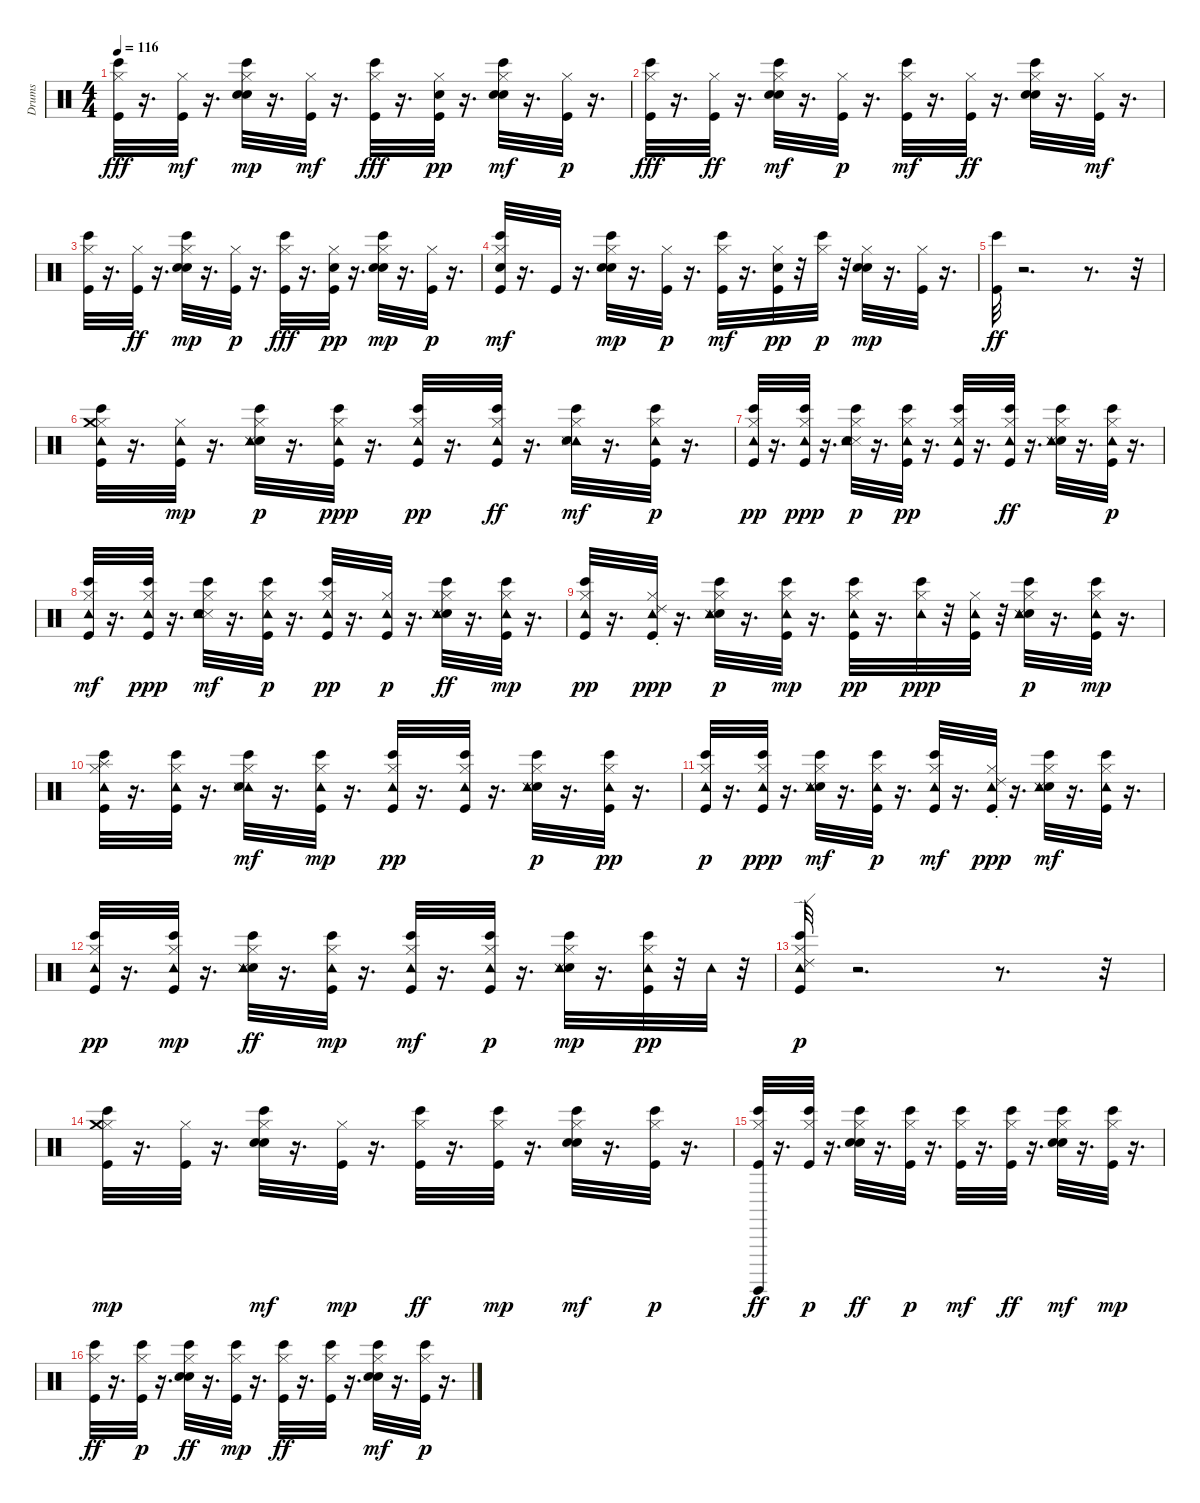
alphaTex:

\track ("Drums" "Drums") {instrument percussion}
\staff {score}
\articulation defaults
\ts (4 4)
\tempo 116
\clef neutral
\ks c
("Kick (hit)" "Hi-Hat (closed)" "Bongo High (hit)").32{dy fff} r.16{d} ("Hi-Hat (closed)" "Kick (hit)").32{dy mf} r.16{d} ("Snare (hit) 2" "Hi-Hat (closed)" "Bongo High (hit)" "Electric Snare (hit)").32{dy mp} r.16{d} ("Hi-Hat (closed)" "Kick (hit)").32{dy mf} r.16{d} ("Bongo High (hit)" "Hi-Hat (closed)" "Kick (hit)").32{dy fff} r.16{d} ("Kick (hit)" "Hi-Hat (closed)" "Electric Snare (hit)").32{dy pp} r.16{d} ("Bongo High (hit)" "Electric Snare (hit)" "Snare (hit) 2" "Hi-Hat (closed)").32{dy mf} r.16{d} ("Kick (hit)" "Hi-Hat (closed)").32{dy p} r.16{d} |
("Kick (hit)" "Hi-Hat (closed)" "Bongo High (hit)").32{dy fff} r.16{d} ("Hi-Hat (closed)" "Kick (hit)").32{dy ff} r.16{d} ("Bongo High (hit)" "Electric Snare (hit)" "Hi-Hat (closed)" "Snare (hit) 2").32{dy mf} r.16{d} ("Kick (hit)" "Hi-Hat (closed)").32{dy p} r.16{d} ("Kick (hit)" "Hi-Hat (closed)" "Bongo High (hit)").32{dy mf} r.16{d} ("Hi-Hat (closed)" "Kick (hit)").32{dy ff} r.16{d} ("Bongo High (hit)" "Electric Snare (hit)" "Snare (hit) 2" "Hi-Hat (closed)").32 r.16{d} ("Hi-Hat (closed)" "Kick (hit)").32{dy mf} r.16{d} |
("Kick (hit)" "Hi-Hat (closed)" "Bongo High (hit)").32 r.16{d} ("Hi-Hat (closed)" "Kick (hit)").32{dy ff} r.16{d} ("Bongo High (hit)" "Hi-Hat (closed)" "Snare (hit) 2" "Electric Snare (hit)").32{dy mp} r.16{d} ("Kick (hit)" "Hi-Hat (closed)").32{dy p} r.16{d} ("Bongo High (hit)" "Hi-Hat (closed)" "Kick (hit)").32{dy fff} r.16{d} ("Kick (hit)" "Electric Snare (hit)" "Hi-Hat (closed)").32{dy pp} r.16{d} ("Snare (hit) 2" "Hi-Hat (closed)" "Bongo High (hit)" "Electric Snare (hit)").32{dy mp} r.16{d} ("Kick (hit)" "Hi-Hat (closed)").32{dy p} r.16{d} |
("Kick (hit)" "Snare (hit)" "Hi-Hat (closed)" "Bongo High (hit)").32{dy mf} r.16{d} "Kick (hit)".32 r.16{d} ("Snare (hit) 2" "Hi-Hat (closed)" "Bongo High (hit)" "Electric Snare (hit)").32{dy mp} r.16{d} ("Kick (hit)" "Hi-Hat (closed)").32{dy p} r.16{d} ("Kick (hit)" "Hi-Hat (closed)" "Bongo High (hit)").32{dy mf} r.16{d} ("Kick (hit)" "Electric Snare (hit)" "Hi-Hat (closed)").32{dy pp} r.32 ("Hi-Hat (closed)" "Bongo High (hit)").32{dy p} r.32 ("Snare (hit) 2" "Electric Snare (hit)" "Hi-Hat (closed)").32{dy mp} r.16{d} ("Hi-Hat (closed)" "Kick (hit)").32 r.16{d} |
("Bongo High (hit)" "Kick (hit)").32{dy ff} r.2{d} r.8{d} r.32 |
("Tambourine (hit)" "Hi-Hat (closed)" "Crash medium (hit)" "Bongo High (hit)" "Kick (hit)").32 r.16{d} ("Kick (hit)" "Tambourine (hit)" "Hi-Hat (closed)").32{dy mp} r.16{d} ("Snare (hit) 2" "Snare (side stick) 3" "Hi-Hat (closed)" "Tambourine (hit)" "Bongo High (hit)").32{dy p} r.16{d} ("Kick (hit)" "Hi-Hat (closed)" "Bongo High (hit)" "Tambourine (hit)").32{dy ppp} r.16{d} ("Bongo High (hit)" "Hi-Hat (closed)" "Kick (hit)" "Tambourine (hit)").32{dy pp} r.16{d} ("Tambourine (hit)" "Bongo High (hit)" "Hi-Hat (closed)" "Kick (hit)").32{dy ff} r.16{d} ("Tambourine (hit)" "Snare (hit) 2" "Snare (side stick) 3" "Hi-Hat (closed)" "Bongo High (hit)").32{dy mf} r.16{d} ("Bongo High (hit)" "Kick (hit)" "Tambourine (hit)" "Hi-Hat (closed)").32{dy p} r.16{d} |
("Kick (hit)" "Hi-Hat (closed)" "Bongo High (hit)" "Tambourine (hit)").32{dy pp} r.16{d} ("Kick (hit)" "Hi-Hat (closed)" "Bongo High (hit)" "Tambourine (hit)").32{dy ppp} r.16{d} ("Snare (side stick) 3" "Hi-Hat (closed)" "Snare (hit) 2" "Tambourine (hit)" "Bongo High (hit)").32{dy p} r.16{d} ("Hi-Hat (closed)" "Kick (hit)" "Bongo High (hit)" "Tambourine (hit)").32{dy pp} r.16{d} ("Bongo High (hit)" "Hi-Hat (closed)" "Kick (hit)" "Tambourine (hit)").32 r.16{d} ("Tambourine (hit)" "Bongo High (hit)" "Hi-Hat (closed)" "Kick (hit)").32{dy ff} r.16{d} ("Hi-Hat (closed)" "Bongo High (hit)" "Snare (hit) 2" "Tambourine (hit)" "Snare (side stick) 3").32 r.16{d} ("Bongo High (hit)" "Kick (hit)" "Tambourine (hit)" "Hi-Hat (closed)").32{dy p} r.16{d} |
("Bongo High (hit)" "Kick (hit)" "Tambourine (hit)" "Hi-Hat (closed)").32{dy mf} r.16{d} ("Kick (hit)" "Hi-Hat (closed)" "Bongo High (hit)" "Tambourine (hit)").32{dy ppp} r.16{d} ("Bongo High (hit)" "Snare (side stick) 3" "Tambourine (hit)" "Hi-Hat (closed)" "Snare (hit) 2").32{dy mf} r.16{d} ("Tambourine (hit)" "Hi-Hat (closed)" "Bongo High (hit)" "Kick (hit)").32{dy p} r.16{d} ("Bongo High (hit)" "Hi-Hat (closed)" "Kick (hit)" "Tambourine (hit)").32{dy pp} r.16{d} ("Kick (hit)" "Tambourine (hit)" "Hi-Hat (closed)").32{dy p} r.16{d} ("Snare (hit) 2" "Bongo High (hit)" "Tambourine (hit)" "Hi-Hat (closed)" "Snare (side stick) 3").32{dy ff} r.16{d} ("Bongo High (hit)" "Tambourine (hit)" "Hi-Hat (closed)" "Kick (hit)").32{dy mp} r.16{d} |
("Kick (hit)" "Hi-Hat (closed)" "Bongo High (hit)" "Tambourine (hit)").32{dy pp} r.16{d} ("Kick (hit)" "Hi-Hat (closed)" "Ride (choke) 2" "Tambourine (hit)").32{dy ppp} r.16{d} ("Snare (hit) 2" "Snare (side stick) 3" "Hi-Hat (closed)" "Bongo High (hit)" "Tambourine (hit)").32{dy p} r.16{d} ("Tambourine (hit)" "Kick (hit)" "Hi-Hat (closed)" "Bongo High (hit)").32{dy mp} r.16{d} ("Kick (hit)" "Bongo High (hit)" "Hi-Hat (closed)" "Tambourine (hit)").32{dy pp} r.16{d} ("Hi-Hat (closed)" "Bongo High (hit)" "Tambourine (hit)").32{dy ppp} r.32 ("Kick (hit)" "Hi-Hat (closed)" "Tambourine (hit)").32 r.32 ("Bongo High (hit)" "Snare (hit) 2" "Hi-Hat (closed)" "Snare (side stick) 3" "Tambourine (hit)").32{dy p} r.16{d} ("Bongo High (hit)" "Tambourine (hit)" "Hi-Hat (closed)" "Kick (hit)").32{dy mp} r.16{d} |
("Kick (hit)" "Hi-Hat (closed)" "Bongo High (hit)" "Tambourine (hit)" "Splash (hit)").32 r.16{d} ("Tambourine (hit)" "Kick (hit)" "Hi-Hat (closed)" "Bongo High (hit)").32 r.16{d} ("Bongo High (hit)" "Tambourine (hit)" "Snare (side stick) 3" "Snare (hit) 2" "Hi-Hat (closed)").32{dy mf} r.16{d} ("Bongo High (hit)" "Tambourine (hit)" "Hi-Hat (closed)" "Kick (hit)").32{dy mp} r.16{d} ("Kick (hit)" "Hi-Hat (closed)" "Bongo High (hit)" "Tambourine (hit)").32{dy pp} r.16{d} ("Kick (hit)" "Hi-Hat (closed)" "Bongo High (hit)" "Tambourine (hit)").32 r.16{d} ("Snare (hit) 2" "Snare (side stick) 3" "Hi-Hat (closed)" "Bongo High (hit)" "Tambourine (hit)").32{dy p} r.16{d} ("Kick (hit)" "Hi-Hat (closed)" "Bongo High (hit)" "Tambourine (hit)").32{dy pp} r.16{d} |
("Hi-Hat (closed)" "Kick (hit)" "Tambourine (hit)" "Bongo High (hit)").32{dy p} r.16{d} ("Hi-Hat (closed)" "Kick (hit)" "Bongo High (hit)" "Tambourine (hit)").32{dy ppp} r.16{d} ("Snare (hit) 2" "Tambourine (hit)" "Hi-Hat (closed)" "Snare (side stick) 3" "Bongo High (hit)").32{dy mf} r.16{d} ("Hi-Hat (closed)" "Tambourine (hit)" "Kick (hit)" "Bongo High (hit)").32{dy p} r.16{d} ("Tambourine (hit)" "Bongo High (hit)" "Kick (hit)" "Hi-Hat (closed)").32{dy mf} r.16{d} ("Kick (hit)" "Hi-Hat (closed)" "Ride (choke) 2" "Tambourine (hit)").32{dy ppp} r.16{d} ("Snare (hit) 2" "Snare (side stick) 3" "Hi-Hat (closed)" "Tambourine (hit)" "Bongo High (hit)").32{dy mf} r.16{d} ("Hi-Hat (closed)" "Bongo High (hit)" "Tambourine (hit)" "Kick (hit)").32 r.16{d} |
("Bongo High (hit)" "Hi-Hat (closed)" "Kick (hit)" "Tambourine (hit)").32{dy pp} r.16{d} ("Bongo High (hit)" "Tambourine (hit)" "Kick (hit)" "Hi-Hat (closed)").32{dy mp} r.16{d} ("Snare (hit) 2" "Hi-Hat (closed)" "Tambourine (hit)" "Bongo High (hit)" "Snare (side stick) 3").32{dy ff} r.16{d} ("Bongo High (hit)" "Tambourine (hit)" "Hi-Hat (closed)" "Kick (hit)").32{dy mp} r.16{d} ("Bongo High (hit)" "Kick (hit)" "Tambourine (hit)" "Hi-Hat (closed)").32{dy mf} r.16{d} ("Bongo High (hit)" "Tambourine (hit)" "Kick (hit)" "Hi-Hat (closed)").32{dy p} r.16{d} ("Snare (hit) 2" "Snare (side stick) 3" "Bongo High (hit)" "Hi-Hat (closed)" "Tambourine (hit)").32{dy mp} r.16{d} ("Kick (hit)" "Hi-Hat (closed)" "Bongo High (hit)" "Tambourine (hit)").32{dy pp} r.32 "Tambourine (hit)".32 r.32 |
("Hi-Hat (closed)" "Bongo High (hit)" "Tambourine (hit)" "Kick (hit)" "Ride (edge) 2").32{dy p} r.2{d} r.8{d} r.32 |
("Kick (hit)" "Hi-Hat (closed)" "Bongo High (hit)" "Crash medium (hit)").32{dy mp} r.16{d} ("Kick (hit)" "Hi-Hat (closed)").32 r.16{d} ("Hi-Hat (closed)" "Snare (hit) 2" "Bongo High (hit)" "Electric Snare (hit)").32{dy mf} r.16{d} ("Kick (hit)" "Hi-Hat (closed)").32{dy mp} r.16{d} ("Kick (hit)" "Hi-Hat (closed)" "Bongo High (hit)").32{dy ff} r.16{d} ("Kick (hit)" "Bongo High (hit)" "Hi-Hat (closed)").32{dy mp} r.16{d} ("Hi-Hat (closed)" "Bongo High (hit)" "Snare (hit) 2" "Electric Snare (hit)").32{dy mf} r.16{d} ("Kick (hit)" "Hi-Hat (closed)" "Bongo High (hit)").32{dy p} r.16{d} |
("Surdo (hit)" "Hi-Hat (closed)" "Bongo High (hit)" "Kick (hit)").32{dy ff} r.16{d} ("Hi-Hat (closed)" "Kick (hit)" "Bongo High (hit)").32{dy p} r.16{d} ("Snare (hit) 2" "Electric Snare (hit)" "Hi-Hat (closed)" "Bongo High (hit)").32{dy ff} r.16{d} ("Hi-Hat (closed)" "Kick (hit)" "Bongo High (hit)").32{dy p} r.16{d} ("Kick (hit)" "Hi-Hat (closed)" "Bongo High (hit)").32{dy mf} r.16{d} ("Bongo High (hit)" "Hi-Hat (closed)" "Kick (hit)").32{dy ff} r.16{d} ("Hi-Hat (closed)" "Bongo High (hit)" "Snare (hit) 2" "Electric Snare (hit)").32{dy mf} r.16{d} ("Bongo High (hit)" "Hi-Hat (closed)" "Kick (hit)").32{dy mp} r.16{d} |
("Kick (hit)" "Hi-Hat (closed)" "Bongo High (hit)").32{dy ff} r.16{d} ("Hi-Hat (closed)" "Kick (hit)" "Bongo High (hit)").32{dy p} r.16{d} ("Electric Snare (hit)" "Snare (hit) 2" "Hi-Hat (closed)" "Bongo High (hit)").32{dy ff} r.16{d} ("Bongo High (hit)" "Hi-Hat (closed)" "Kick (hit)").32{dy mp} r.16{d} ("Hi-Hat (closed)" "Kick (hit)" "Bongo High (hit)").32{dy ff} r.16{d} ("Bongo High (hit)" "Hi-Hat (closed)" "Kick (hit)").32 r.16{d} ("Electric Snare (hit)" "Snare (hit) 2" "Hi-Hat (closed)" "Bongo High (hit)").32{dy mf} r.16{d} ("Kick (hit)" "Hi-Hat (closed)" "Bongo High (hit)").32{dy p} r.16{d}
